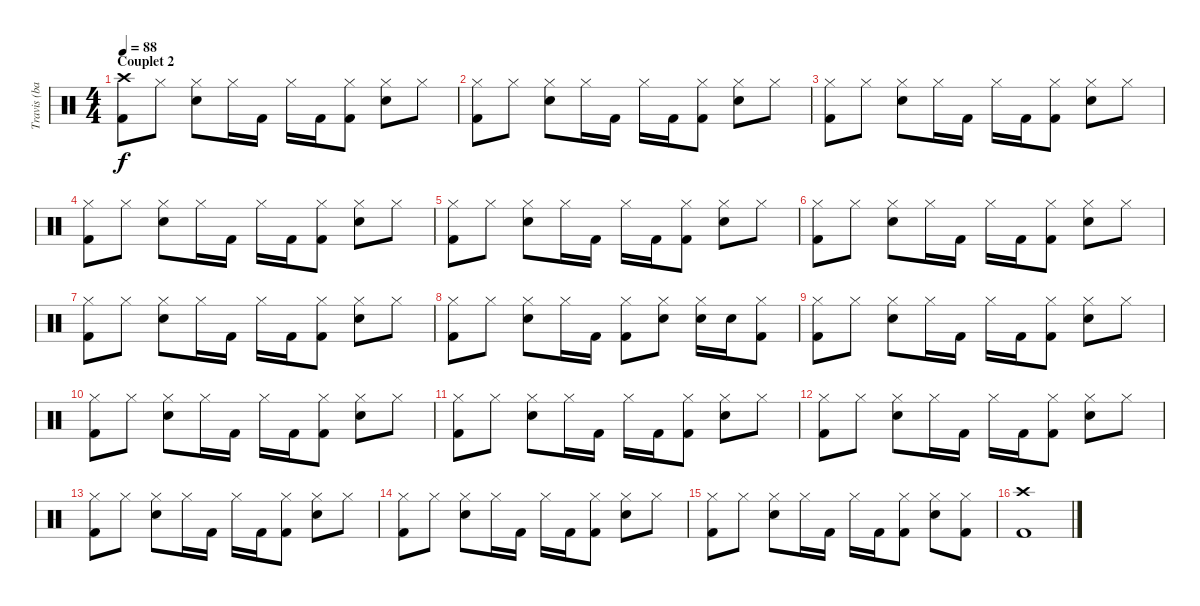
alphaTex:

\track ("Travis (batterie)" "Travis (ba") {instrument percussion}
\staff {score}
\articulation defaults
\ts (4 4)
\section ("" "Couplet 2")
\tempo 88
\clef neutral
\ks c
("Crash high (hit)" "Kick (hit) 2").8{dy f} "Hi-Hat (closed)".8 ("Hi-Hat (closed)" "Electric Snare (hit)").8 "Hi-Hat (closed)".16 "Kick (hit) 2".16 "Hi-Hat (closed)".16 "Kick (hit) 2".16 ("Hi-Hat (closed)" "Kick (hit) 2").8 ("Hi-Hat (closed)" "Electric Snare (hit)").8 "Hi-Hat (closed)".8 |
("Hi-Hat (closed)" "Kick (hit) 2").8 "Hi-Hat (closed)".8 ("Hi-Hat (closed)" "Electric Snare (hit)").8 "Hi-Hat (closed)".16 "Kick (hit) 2".16 "Hi-Hat (closed)".16 "Kick (hit) 2".16 ("Hi-Hat (closed)" "Kick (hit) 2").8 ("Hi-Hat (closed)" "Electric Snare (hit)").8 "Hi-Hat (closed)".8 |
("Hi-Hat (closed)" "Kick (hit) 2").8 "Hi-Hat (closed)".8 ("Hi-Hat (closed)" "Electric Snare (hit)").8 "Hi-Hat (closed)".16 "Kick (hit) 2".16 "Hi-Hat (closed)".16 "Kick (hit) 2".16 ("Hi-Hat (closed)" "Kick (hit) 2").8 ("Hi-Hat (closed)" "Electric Snare (hit)").8 "Hi-Hat (closed)".8 |
("Hi-Hat (closed)" "Kick (hit) 2").8 "Hi-Hat (closed)".8 ("Hi-Hat (closed)" "Electric Snare (hit)").8 "Hi-Hat (closed)".16 "Kick (hit) 2".16 "Hi-Hat (closed)".16 "Kick (hit) 2".16 ("Hi-Hat (closed)" "Kick (hit) 2").8 ("Hi-Hat (closed)" "Electric Snare (hit)").8 "Hi-Hat (closed)".8 |
("Hi-Hat (closed)" "Kick (hit) 2").8 "Hi-Hat (closed)".8 ("Hi-Hat (closed)" "Electric Snare (hit)").8 "Hi-Hat (closed)".16 "Kick (hit) 2".16 "Hi-Hat (closed)".16 "Kick (hit) 2".16 ("Hi-Hat (closed)" "Kick (hit) 2").8 ("Hi-Hat (closed)" "Electric Snare (hit)").8 "Hi-Hat (closed)".8 |
("Hi-Hat (closed)" "Kick (hit) 2").8 "Hi-Hat (closed)".8 ("Hi-Hat (closed)" "Electric Snare (hit)").8 "Hi-Hat (closed)".16 "Kick (hit) 2".16 "Hi-Hat (closed)".16 "Kick (hit) 2".16 ("Hi-Hat (closed)" "Kick (hit) 2").8 ("Hi-Hat (closed)" "Electric Snare (hit)").8 "Hi-Hat (closed)".8 |
("Hi-Hat (closed)" "Kick (hit) 2").8 "Hi-Hat (closed)".8 ("Hi-Hat (closed)" "Electric Snare (hit)").8 "Hi-Hat (closed)".16 "Kick (hit) 2".16 "Hi-Hat (closed)".16 "Kick (hit) 2".16 ("Hi-Hat (closed)" "Kick (hit) 2").8 ("Hi-Hat (closed)" "Electric Snare (hit)").8 "Hi-Hat (closed)".8 |
("Hi-Hat (closed)" "Kick (hit) 2").8 "Hi-Hat (closed)".8 ("Hi-Hat (closed)" "Electric Snare (hit)").8 "Hi-Hat (closed)".16 "Kick (hit) 2".16 ("Hi-Hat (closed)" "Kick (hit) 2").8 ("Hi-Hat (closed)" "Electric Snare (hit)").8 ("Hi-Hat (closed)" "Electric Snare (hit)").16 "Electric Snare (hit)".16 ("Hi-Hat (closed)" "Kick (hit) 2").8 |
("Hi-Hat (closed)" "Kick (hit) 2").8 "Hi-Hat (closed)".8 ("Hi-Hat (closed)" "Electric Snare (hit)").8 "Hi-Hat (closed)".16 "Kick (hit) 2".16 "Hi-Hat (closed)".16 "Kick (hit) 2".16 ("Hi-Hat (closed)" "Kick (hit) 2").8 ("Hi-Hat (closed)" "Electric Snare (hit)").8 "Hi-Hat (closed)".8 |
("Hi-Hat (closed)" "Kick (hit) 2").8 "Hi-Hat (closed)".8 ("Hi-Hat (closed)" "Electric Snare (hit)").8 "Hi-Hat (closed)".16 "Kick (hit) 2".16 "Hi-Hat (closed)".16 "Kick (hit) 2".16 ("Hi-Hat (closed)" "Kick (hit) 2").8 ("Hi-Hat (closed)" "Electric Snare (hit)").8 "Hi-Hat (closed)".8 |
("Hi-Hat (closed)" "Kick (hit) 2").8 "Hi-Hat (closed)".8 ("Hi-Hat (closed)" "Electric Snare (hit)").8 "Hi-Hat (closed)".16 "Kick (hit) 2".16 "Hi-Hat (closed)".16 "Kick (hit) 2".16 ("Hi-Hat (closed)" "Kick (hit) 2").8 ("Hi-Hat (closed)" "Electric Snare (hit)").8 "Hi-Hat (closed)".8 |
("Hi-Hat (closed)" "Kick (hit) 2").8 "Hi-Hat (closed)".8 ("Hi-Hat (closed)" "Electric Snare (hit)").8 "Hi-Hat (closed)".16 "Kick (hit) 2".16 "Hi-Hat (closed)".16 "Kick (hit) 2".16 ("Hi-Hat (closed)" "Kick (hit) 2").8 ("Hi-Hat (closed)" "Electric Snare (hit)").8 "Hi-Hat (closed)".8 |
("Hi-Hat (closed)" "Kick (hit) 2").8 "Hi-Hat (closed)".8 ("Hi-Hat (closed)" "Electric Snare (hit)").8 "Hi-Hat (closed)".16 "Kick (hit) 2".16 "Hi-Hat (closed)".16 "Kick (hit) 2".16 ("Hi-Hat (closed)" "Kick (hit) 2").8 ("Hi-Hat (closed)" "Electric Snare (hit)").8 "Hi-Hat (closed)".8 |
("Hi-Hat (closed)" "Kick (hit) 2").8 "Hi-Hat (closed)".8 ("Hi-Hat (closed)" "Electric Snare (hit)").8 "Hi-Hat (closed)".16 "Kick (hit) 2".16 "Hi-Hat (closed)".16 "Kick (hit) 2".16 ("Hi-Hat (closed)" "Kick (hit) 2").8 ("Hi-Hat (closed)" "Electric Snare (hit)").8 "Hi-Hat (closed)".8 |
("Hi-Hat (closed)" "Kick (hit) 2").8 "Hi-Hat (closed)".8 ("Hi-Hat (closed)" "Electric Snare (hit)").8 "Hi-Hat (closed)".16 "Kick (hit) 2".16 "Hi-Hat (closed)".16 "Kick (hit) 2".16 ("Hi-Hat (closed)" "Kick (hit) 2").8 ("Hi-Hat (closed)" "Electric Snare (hit)").8 ("Hi-Hat (closed)" "Kick (hit) 2").8 |
("Crash high (hit)" "Kick (hit) 2").1
